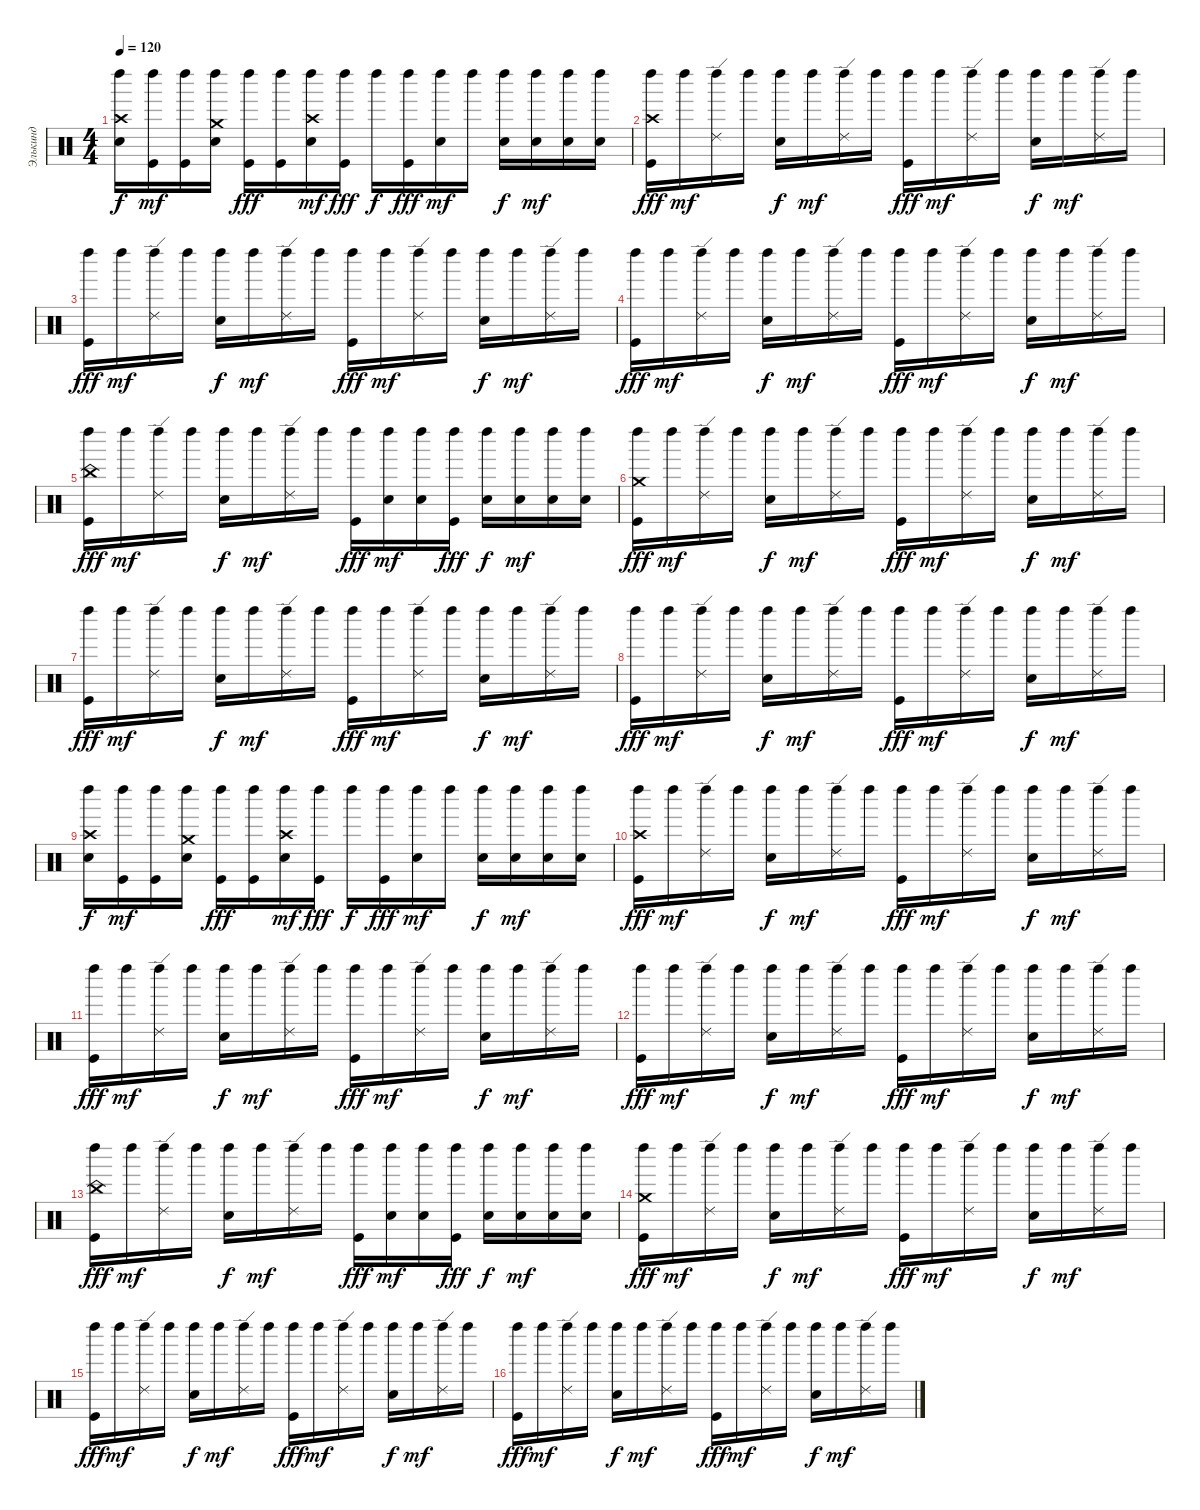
\track ("Элькинд" "Элькинд") {instrument percussion}
\staff {score}
\articulation defaults
\ts (4 4)
\tempo 120
\clef neutral
\ks c
("Crash high (hit)" "Electric Snare (hit)" "Left Maraca (hit)").16{dy f} ("Kick (hit)" "Left Maraca (hit)").16{dy mf} ("Kick (hit)" "Left Maraca (hit)").16 ("Left Maraca (hit)" "Crash medium (hit)" "Electric Snare (hit)").16 ("Kick (hit)" "Left Maraca (hit)").16{dy fff} ("Left Maraca (hit)" "Kick (hit)").16 ("Left Maraca (hit)" "Crash high (hit)" "Electric Snare (hit)").16{dy mf} ("Left Maraca (hit)" "Kick (hit)").16{dy fff} "Left Maraca (hit)".16{dy f} ("Left Maraca (hit)" "Kick (hit)").16{dy fff} ("Electric Snare (hit)" "Left Maraca (hit)").16{dy mf} "Left Maraca (hit)".16 ("Left Maraca (hit)" "Electric Snare (hit)").16{dy f} ("Electric Snare (hit)" "Left Maraca (hit)").16{dy mf} ("Electric Snare (hit)" "Left Maraca (hit)").16 ("Electric Snare (hit)" "Left Maraca (hit)").16 |
("Left Maraca (hit)" "Crash high (hit)" "Kick (hit)").16{dy fff} "Left Maraca (hit)".16{dy mf} ("Left Maraca (hit)" "Ride (edge) 2").16 "Left Maraca (hit)".16 ("Left Maraca (hit)" "Electric Snare (hit)").16{dy f} "Left Maraca (hit)".16{dy mf} ("Left Maraca (hit)" "Ride (edge) 2").16 "Left Maraca (hit)".16 ("Left Maraca (hit)" "Kick (hit)").16{dy fff} "Left Maraca (hit)".16{dy mf} ("Left Maraca (hit)" "Ride (edge) 2").16 "Left Maraca (hit)".16 ("Left Maraca (hit)" "Electric Snare (hit)").16{dy f} "Left Maraca (hit)".16{dy mf} ("Left Maraca (hit)" "Ride (edge) 2").16 "Left Maraca (hit)".16 |
("Left Maraca (hit)" "Kick (hit)").16{dy fff} "Left Maraca (hit)".16{dy mf} ("Left Maraca (hit)" "Ride (edge) 2").16 "Left Maraca (hit)".16 ("Left Maraca (hit)" "Electric Snare (hit)").16{dy f} "Left Maraca (hit)".16{dy mf} ("Left Maraca (hit)" "Ride (edge) 2").16 "Left Maraca (hit)".16 ("Left Maraca (hit)" "Kick (hit)").16{dy fff} "Left Maraca (hit)".16{dy mf} ("Left Maraca (hit)" "Ride (edge) 2").16 "Left Maraca (hit)".16 ("Left Maraca (hit)" "Electric Snare (hit)").16{dy f} "Left Maraca (hit)".16{dy mf} ("Left Maraca (hit)" "Ride (edge) 2").16 "Left Maraca (hit)".16 |
("Left Maraca (hit)" "Kick (hit)").16{dy fff} "Left Maraca (hit)".16{dy mf} ("Left Maraca (hit)" "Ride (edge) 2").16 "Left Maraca (hit)".16 ("Left Maraca (hit)" "Electric Snare (hit)").16{dy f} "Left Maraca (hit)".16{dy mf} ("Left Maraca (hit)" "Ride (edge) 2").16 "Left Maraca (hit)".16 ("Left Maraca (hit)" "Kick (hit)").16{dy fff} "Left Maraca (hit)".16{dy mf} ("Left Maraca (hit)" "Ride (edge) 2").16 "Left Maraca (hit)".16 ("Left Maraca (hit)" "Electric Snare (hit)").16{dy f} "Left Maraca (hit)".16{dy mf} ("Left Maraca (hit)" "Ride (edge) 2").16 "Left Maraca (hit)".16 |
("Kick (hit)" "China (hit)" "Left Maraca (hit)").16{dy fff} "Left Maraca (hit)".16{dy mf} ("Left Maraca (hit)" "Ride (edge) 2").16 "Left Maraca (hit)".16 ("Electric Snare (hit)" "Left Maraca (hit)").16{dy f} "Left Maraca (hit)".16{dy mf} ("Ride (edge) 2" "Left Maraca (hit)").16 "Left Maraca (hit)".16 ("Left Maraca (hit)" "Kick (hit)").16{dy fff} ("Electric Snare (hit)" "Left Maraca (hit)").16{dy mf} ("Left Maraca (hit)" "Electric Snare (hit)").16 ("Left Maraca (hit)" "Kick (hit)").16{dy fff} ("Electric Snare (hit)" "Left Maraca (hit)").16{dy f} ("Left Maraca (hit)" "Electric Snare (hit)").16{dy mf} ("Left Maraca (hit)" "Electric Snare (hit)").16 ("Electric Snare (hit)" "Left Maraca (hit)").16 |
("Left Maraca (hit)" "Crash medium (hit)" "Kick (hit)").16{dy fff} "Left Maraca (hit)".16{dy mf} ("Left Maraca (hit)" "Ride (edge) 2").16 "Left Maraca (hit)".16 ("Left Maraca (hit)" "Electric Snare (hit)").16{dy f} "Left Maraca (hit)".16{dy mf} ("Left Maraca (hit)" "Ride (edge) 2").16 "Left Maraca (hit)".16 ("Left Maraca (hit)" "Kick (hit)").16{dy fff} "Left Maraca (hit)".16{dy mf} ("Left Maraca (hit)" "Ride (edge) 2").16 "Left Maraca (hit)".16 ("Left Maraca (hit)" "Electric Snare (hit)").16{dy f} "Left Maraca (hit)".16{dy mf} ("Left Maraca (hit)" "Ride (edge) 2").16 "Left Maraca (hit)".16 |
("Left Maraca (hit)" "Kick (hit)").16{dy fff} "Left Maraca (hit)".16{dy mf} ("Left Maraca (hit)" "Ride (edge) 2").16 "Left Maraca (hit)".16 ("Left Maraca (hit)" "Electric Snare (hit)").16{dy f} "Left Maraca (hit)".16{dy mf} ("Left Maraca (hit)" "Ride (edge) 2").16 "Left Maraca (hit)".16 ("Left Maraca (hit)" "Kick (hit)").16{dy fff} "Left Maraca (hit)".16{dy mf} ("Left Maraca (hit)" "Ride (edge) 2").16 "Left Maraca (hit)".16 ("Left Maraca (hit)" "Electric Snare (hit)").16{dy f} "Left Maraca (hit)".16{dy mf} ("Left Maraca (hit)" "Ride (edge) 2").16 "Left Maraca (hit)".16 |
("Left Maraca (hit)" "Kick (hit)").16{dy fff} "Left Maraca (hit)".16{dy mf} ("Left Maraca (hit)" "Ride (edge) 2").16 "Left Maraca (hit)".16 ("Left Maraca (hit)" "Electric Snare (hit)").16{dy f} "Left Maraca (hit)".16{dy mf} ("Left Maraca (hit)" "Ride (edge) 2").16 "Left Maraca (hit)".16 ("Left Maraca (hit)" "Kick (hit)").16{dy fff} "Left Maraca (hit)".16{dy mf} ("Left Maraca (hit)" "Ride (edge) 2").16 "Left Maraca (hit)".16 ("Left Maraca (hit)" "Electric Snare (hit)").16{dy f} "Left Maraca (hit)".16{dy mf} ("Left Maraca (hit)" "Ride (edge) 2").16 "Left Maraca (hit)".16 |
("Crash high (hit)" "Electric Snare (hit)" "Left Maraca (hit)").16{dy f} ("Kick (hit)" "Left Maraca (hit)").16{dy mf} ("Kick (hit)" "Left Maraca (hit)").16 ("Left Maraca (hit)" "Crash medium (hit)" "Electric Snare (hit)").16 ("Kick (hit)" "Left Maraca (hit)").16{dy fff} ("Left Maraca (hit)" "Kick (hit)").16 ("Left Maraca (hit)" "Crash high (hit)" "Electric Snare (hit)").16{dy mf} ("Left Maraca (hit)" "Kick (hit)").16{dy fff} "Left Maraca (hit)".16{dy f} ("Left Maraca (hit)" "Kick (hit)").16{dy fff} ("Electric Snare (hit)" "Left Maraca (hit)").16{dy mf} "Left Maraca (hit)".16 ("Left Maraca (hit)" "Electric Snare (hit)").16{dy f} ("Electric Snare (hit)" "Left Maraca (hit)").16{dy mf} ("Electric Snare (hit)" "Left Maraca (hit)").16 ("Electric Snare (hit)" "Left Maraca (hit)").16 |
("Left Maraca (hit)" "Crash high (hit)" "Kick (hit)").16{dy fff} "Left Maraca (hit)".16{dy mf} ("Left Maraca (hit)" "Ride (edge) 2").16 "Left Maraca (hit)".16 ("Left Maraca (hit)" "Electric Snare (hit)").16{dy f} "Left Maraca (hit)".16{dy mf} ("Left Maraca (hit)" "Ride (edge) 2").16 "Left Maraca (hit)".16 ("Left Maraca (hit)" "Kick (hit)").16{dy fff} "Left Maraca (hit)".16{dy mf} ("Left Maraca (hit)" "Ride (edge) 2").16 "Left Maraca (hit)".16 ("Left Maraca (hit)" "Electric Snare (hit)").16{dy f} "Left Maraca (hit)".16{dy mf} ("Left Maraca (hit)" "Ride (edge) 2").16 "Left Maraca (hit)".16 |
("Left Maraca (hit)" "Kick (hit)").16{dy fff} "Left Maraca (hit)".16{dy mf} ("Left Maraca (hit)" "Ride (edge) 2").16 "Left Maraca (hit)".16 ("Left Maraca (hit)" "Electric Snare (hit)").16{dy f} "Left Maraca (hit)".16{dy mf} ("Left Maraca (hit)" "Ride (edge) 2").16 "Left Maraca (hit)".16 ("Left Maraca (hit)" "Kick (hit)").16{dy fff} "Left Maraca (hit)".16{dy mf} ("Left Maraca (hit)" "Ride (edge) 2").16 "Left Maraca (hit)".16 ("Left Maraca (hit)" "Electric Snare (hit)").16{dy f} "Left Maraca (hit)".16{dy mf} ("Left Maraca (hit)" "Ride (edge) 2").16 "Left Maraca (hit)".16 |
("Left Maraca (hit)" "Kick (hit)").16{dy fff} "Left Maraca (hit)".16{dy mf} ("Left Maraca (hit)" "Ride (edge) 2").16 "Left Maraca (hit)".16 ("Left Maraca (hit)" "Electric Snare (hit)").16{dy f} "Left Maraca (hit)".16{dy mf} ("Left Maraca (hit)" "Ride (edge) 2").16 "Left Maraca (hit)".16 ("Left Maraca (hit)" "Kick (hit)").16{dy fff} "Left Maraca (hit)".16{dy mf} ("Left Maraca (hit)" "Ride (edge) 2").16 "Left Maraca (hit)".16 ("Left Maraca (hit)" "Electric Snare (hit)").16{dy f} "Left Maraca (hit)".16{dy mf} ("Left Maraca (hit)" "Ride (edge) 2").16 "Left Maraca (hit)".16 |
("Kick (hit)" "China (hit)" "Left Maraca (hit)").16{dy fff} "Left Maraca (hit)".16{dy mf} ("Left Maraca (hit)" "Ride (edge) 2").16 "Left Maraca (hit)".16 ("Electric Snare (hit)" "Left Maraca (hit)").16{dy f} "Left Maraca (hit)".16{dy mf} ("Ride (edge) 2" "Left Maraca (hit)").16 "Left Maraca (hit)".16 ("Left Maraca (hit)" "Kick (hit)").16{dy fff} ("Electric Snare (hit)" "Left Maraca (hit)").16{dy mf} ("Left Maraca (hit)" "Electric Snare (hit)").16 ("Left Maraca (hit)" "Kick (hit)").16{dy fff} ("Electric Snare (hit)" "Left Maraca (hit)").16{dy f} ("Left Maraca (hit)" "Electric Snare (hit)").16{dy mf} ("Left Maraca (hit)" "Electric Snare (hit)").16 ("Electric Snare (hit)" "Left Maraca (hit)").16 |
("Left Maraca (hit)" "Crash medium (hit)" "Kick (hit)").16{dy fff} "Left Maraca (hit)".16{dy mf} ("Left Maraca (hit)" "Ride (edge) 2").16 "Left Maraca (hit)".16 ("Left Maraca (hit)" "Electric Snare (hit)").16{dy f} "Left Maraca (hit)".16{dy mf} ("Left Maraca (hit)" "Ride (edge) 2").16 "Left Maraca (hit)".16 ("Left Maraca (hit)" "Kick (hit)").16{dy fff} "Left Maraca (hit)".16{dy mf} ("Left Maraca (hit)" "Ride (edge) 2").16 "Left Maraca (hit)".16 ("Left Maraca (hit)" "Electric Snare (hit)").16{dy f} "Left Maraca (hit)".16{dy mf} ("Left Maraca (hit)" "Ride (edge) 2").16 "Left Maraca (hit)".16 |
("Left Maraca (hit)" "Kick (hit)").16{dy fff} "Left Maraca (hit)".16{dy mf} ("Left Maraca (hit)" "Ride (edge) 2").16 "Left Maraca (hit)".16 ("Left Maraca (hit)" "Electric Snare (hit)").16{dy f} "Left Maraca (hit)".16{dy mf} ("Left Maraca (hit)" "Ride (edge) 2").16 "Left Maraca (hit)".16 ("Left Maraca (hit)" "Kick (hit)").16{dy fff} "Left Maraca (hit)".16{dy mf} ("Left Maraca (hit)" "Ride (edge) 2").16 "Left Maraca (hit)".16 ("Left Maraca (hit)" "Electric Snare (hit)").16{dy f} "Left Maraca (hit)".16{dy mf} ("Left Maraca (hit)" "Ride (edge) 2").16 "Left Maraca (hit)".16 |
("Left Maraca (hit)" "Kick (hit)").16{dy fff} "Left Maraca (hit)".16{dy mf} ("Left Maraca (hit)" "Ride (edge) 2").16 "Left Maraca (hit)".16 ("Left Maraca (hit)" "Electric Snare (hit)").16{dy f} "Left Maraca (hit)".16{dy mf} ("Left Maraca (hit)" "Ride (edge) 2").16 "Left Maraca (hit)".16 ("Left Maraca (hit)" "Kick (hit)").16{dy fff} "Left Maraca (hit)".16{dy mf} ("Left Maraca (hit)" "Ride (edge) 2").16 "Left Maraca (hit)".16 ("Left Maraca (hit)" "Electric Snare (hit)").16{dy f} "Left Maraca (hit)".16{dy mf} ("Left Maraca (hit)" "Ride (edge) 2").16 "Left Maraca (hit)".16
